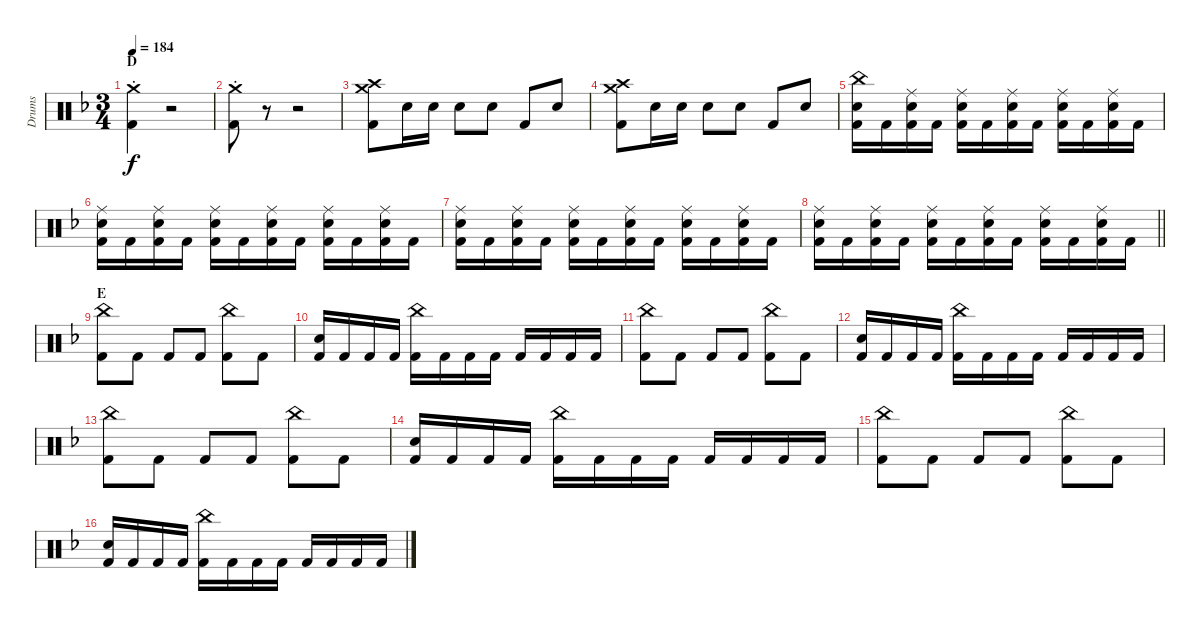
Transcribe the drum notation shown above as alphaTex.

\track ("Drums" "Drums") {instrument percussion}
\staff {score}
\articulation defaults
\ts (3 4)
\section ("" "D")
\tempo 184
\clef neutral
\ks f
("Crash medium (hit)"{st} "Kick (hit) 2").4{dy f} r.2{volume 0} |
("Crash medium (hit)"{st} "Kick (hit) 2").8{volume 14} r.8{volume 0} r.2 |
("Crash medium (hit)" "Crash high (hit)" "Kick (hit) 2").8{volume 14} "Electric Snare (hit)".16 "Electric Snare (hit)".16 "Electric Snare (hit)".8 "Electric Snare (hit)".8 "Kick (hit) 2".8 "Electric Snare (hit)".8 |
("Crash medium (hit)" "Crash high (hit)" "Kick (hit) 2").8 "Electric Snare (hit)".16 "Electric Snare (hit)".16 "Electric Snare (hit)".8 "Electric Snare (hit)".8 "Kick (hit) 2".8 "Electric Snare (hit)".8 |
("China (hit)" "Electric Snare (hit)" "Kick (hit) 2").16 "Kick (hit) 2".16 ("Ride (middle)" "Electric Snare (hit)" "Kick (hit) 2").16 "Kick (hit) 2".16 ("Ride (middle)" "Electric Snare (hit)" "Kick (hit) 2").16 "Kick (hit) 2".16 ("Ride (middle)" "Electric Snare (hit)" "Kick (hit) 2").16 "Kick (hit) 2".16 ("Ride (middle)" "Electric Snare (hit)" "Kick (hit) 2").16 "Kick (hit) 2".16 ("Ride (middle)" "Electric Snare (hit)" "Kick (hit) 2").16 "Kick (hit) 2".16 |
("Ride (middle)" "Electric Snare (hit)" "Kick (hit) 2").16 "Kick (hit) 2".16 ("Ride (middle)" "Electric Snare (hit)" "Kick (hit) 2").16 "Kick (hit) 2".16 ("Ride (middle)" "Electric Snare (hit)" "Kick (hit) 2").16 "Kick (hit) 2".16 ("Ride (middle)" "Electric Snare (hit)" "Kick (hit) 2").16 "Kick (hit) 2".16 ("Ride (middle)" "Electric Snare (hit)" "Kick (hit) 2").16 "Kick (hit) 2".16 ("Ride (middle)" "Electric Snare (hit)" "Kick (hit) 2").16 "Kick (hit) 2".16 |
("Ride (middle)" "Electric Snare (hit)" "Kick (hit) 2").16 "Kick (hit) 2".16 ("Ride (middle)" "Electric Snare (hit)" "Kick (hit) 2").16 "Kick (hit) 2".16 ("Ride (middle)" "Electric Snare (hit)" "Kick (hit) 2").16 "Kick (hit) 2".16 ("Ride (middle)" "Electric Snare (hit)" "Kick (hit) 2").16 "Kick (hit) 2".16 ("Ride (middle)" "Electric Snare (hit)" "Kick (hit) 2").16 "Kick (hit) 2".16 ("Ride (middle)" "Electric Snare (hit)" "Kick (hit) 2").16 "Kick (hit) 2".16 |
\barLineRight lightlight
("Ride (middle)" "Electric Snare (hit)" "Kick (hit) 2").16 "Kick (hit) 2".16 ("Ride (middle)" "Electric Snare (hit)" "Kick (hit) 2").16 "Kick (hit) 2".16 ("Ride (middle)" "Electric Snare (hit)" "Kick (hit) 2").16 "Kick (hit) 2".16 ("Ride (middle)" "Electric Snare (hit)" "Kick (hit) 2").16 "Kick (hit) 2".16 ("Ride (middle)" "Electric Snare (hit)" "Kick (hit) 2").16 "Kick (hit) 2".16 ("Ride (middle)" "Electric Snare (hit)" "Kick (hit) 2").16 "Kick (hit) 2".16 |
\section ("" "E")
("China (hit)" "Kick (hit) 2").8 "Kick (hit) 2".8 "Kick (hit) 2".8 "Kick (hit) 2".8 ("China (hit)" "Kick (hit) 2").8 "Kick (hit) 2".8 |
("Electric Snare (hit)" "Kick (hit) 2").16 "Kick (hit) 2".16 "Kick (hit) 2".16 "Kick (hit) 2".16 ("China (hit)" "Kick (hit) 2").16 "Kick (hit) 2".16 "Kick (hit) 2".16 "Kick (hit) 2".16 "Kick (hit) 2".16 "Kick (hit) 2".16 "Kick (hit) 2".16 "Kick (hit) 2".16 |
("China (hit)" "Kick (hit) 2").8 "Kick (hit) 2".8 "Kick (hit) 2".8 "Kick (hit) 2".8 ("China (hit)" "Kick (hit) 2").8 "Kick (hit) 2".8 |
("Electric Snare (hit)" "Kick (hit) 2").16 "Kick (hit) 2".16 "Kick (hit) 2".16 "Kick (hit) 2".16 ("China (hit)" "Kick (hit) 2").16 "Kick (hit) 2".16 "Kick (hit) 2".16 "Kick (hit) 2".16 "Kick (hit) 2".16 "Kick (hit) 2".16 "Kick (hit) 2".16 "Kick (hit) 2".16 |
("China (hit)" "Kick (hit) 2").8 "Kick (hit) 2".8 "Kick (hit) 2".8 "Kick (hit) 2".8 ("China (hit)" "Kick (hit) 2").8 "Kick (hit) 2".8 |
("Electric Snare (hit)" "Kick (hit) 2").16 "Kick (hit) 2".16 "Kick (hit) 2".16 "Kick (hit) 2".16 ("China (hit)" "Kick (hit) 2").16 "Kick (hit) 2".16 "Kick (hit) 2".16 "Kick (hit) 2".16 "Kick (hit) 2".16 "Kick (hit) 2".16 "Kick (hit) 2".16 "Kick (hit) 2".16 |
("China (hit)" "Kick (hit) 2").8 "Kick (hit) 2".8 "Kick (hit) 2".8 "Kick (hit) 2".8 ("China (hit)" "Kick (hit) 2").8 "Kick (hit) 2".8 |
("Electric Snare (hit)" "Kick (hit) 2").16 "Kick (hit) 2".16 "Kick (hit) 2".16 "Kick (hit) 2".16 ("China (hit)" "Kick (hit) 2").16 "Kick (hit) 2".16 "Kick (hit) 2".16 "Kick (hit) 2".16 "Kick (hit) 2".16 "Kick (hit) 2".16 "Kick (hit) 2".16 "Kick (hit) 2".16
